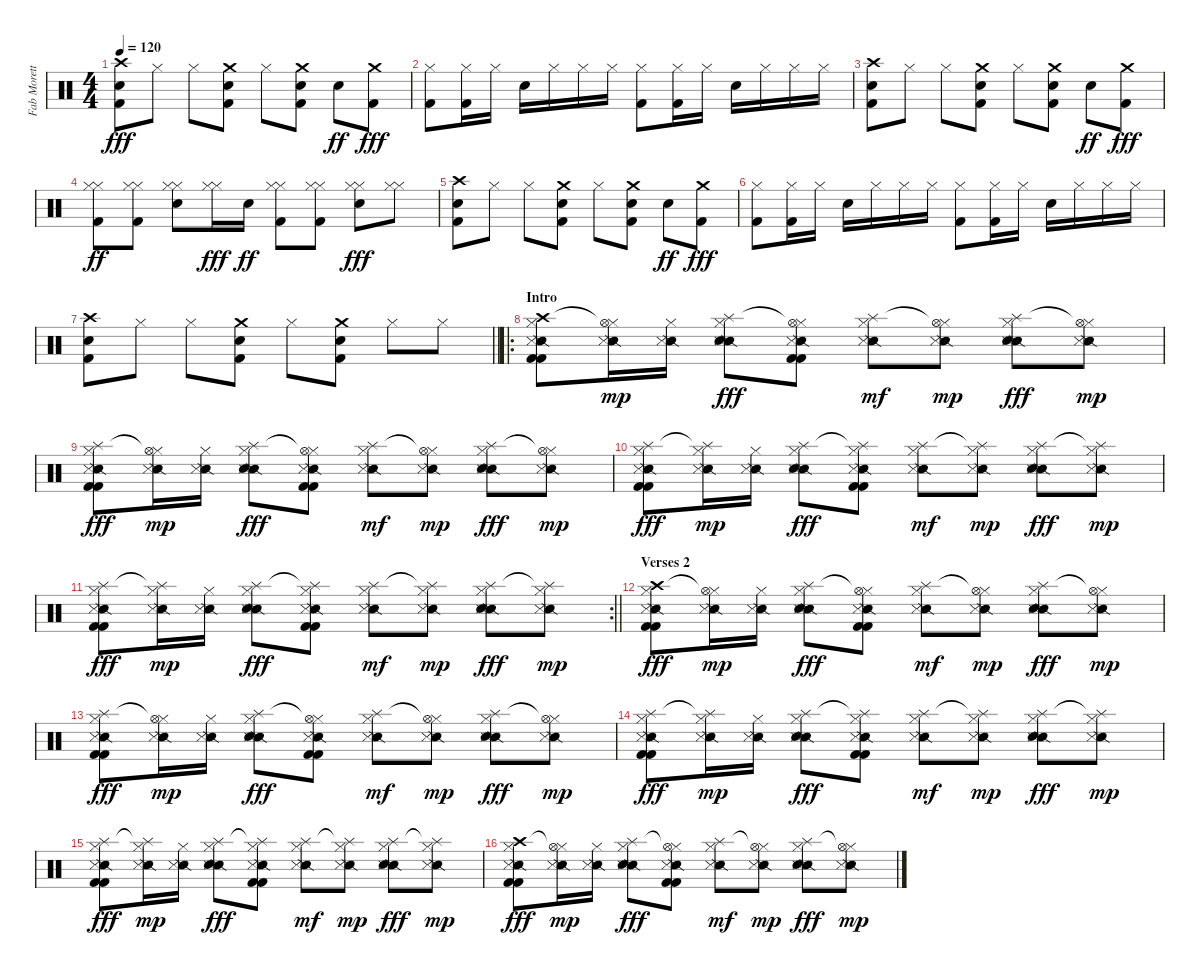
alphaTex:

\track ("Fab Moretti - Drums" "Fab Morett") {instrument percussion}
\staff {score}
\articulation defaults
\ts (4 4)
\tempo 120
\clef neutral
\ks c
("Crash high (hit)" "Electric Snare (hit)" "Kick (hit) 2").8{dy fff} "Hi-Hat (closed)".8 "Hi-Hat (closed)".8 ("Crash medium (hit)" "Electric Snare (hit)" "Kick (hit) 2").8 "Hi-Hat (closed)".8 ("Crash medium (hit)" "Electric Snare (hit)" "Kick (hit) 2").8 "Electric Snare (hit)".8{dy ff} ("Crash medium (hit)" "Kick (hit) 2").8{dy fff} |
("Hi-Hat (closed)" "Kick (hit) 2").8 ("Hi-Hat (closed)" "Kick (hit) 2").16 "Hi-Hat (closed)".16 "Electric Snare (hit)".16 "Hi-Hat (closed)".16 "Hi-Hat (closed)".16 "Hi-Hat (closed)".16 ("Hi-Hat (closed)" "Kick (hit) 2").8 ("Hi-Hat (closed)" "Kick (hit) 2").16 "Hi-Hat (closed)".16 "Electric Snare (hit)".16 "Hi-Hat (closed)".16 "Hi-Hat (closed)".16 "Hi-Hat (closed)".16 |
("Crash high (hit)" "Electric Snare (hit)" "Kick (hit) 2").8 "Hi-Hat (closed)".8 "Hi-Hat (closed)".8 ("Crash medium (hit)" "Electric Snare (hit)" "Kick (hit) 2").8 "Hi-Hat (closed)".8 ("Crash medium (hit)" "Electric Snare (hit)" "Kick (hit) 2").8 "Electric Snare (hit)".8{dy ff} ("Crash medium (hit)" "Kick (hit) 2").8{dy fff} |
("Hi-Hat (closed)" "Hi-Hat (closed)" "Kick (hit) 2").8{dy ff} ("Hi-Hat (closed)" "Hi-Hat (closed)" "Kick (hit) 2").8 ("Hi-Hat (closed)" "Hi-Hat (closed)" "Electric Snare (hit)").8 ("Hi-Hat (closed)" "Hi-Hat (closed)").16{dy fff} "Electric Snare (hit)".16{dy ff} ("Hi-Hat (closed)" "Hi-Hat (closed)" "Kick (hit) 2").8 ("Hi-Hat (closed)" "Hi-Hat (closed)" "Kick (hit) 2").8 ("Hi-Hat (closed)" "Hi-Hat (closed)" "Electric Snare (hit)").8{dy fff} ("Hi-Hat (closed)" "Hi-Hat (closed)").8 |
("Crash high (hit)" "Electric Snare (hit)" "Kick (hit) 2").8 "Hi-Hat (closed)".8 "Hi-Hat (closed)".8 ("Crash medium (hit)" "Electric Snare (hit)" "Kick (hit) 2").8 "Hi-Hat (closed)".8 ("Crash medium (hit)" "Electric Snare (hit)" "Kick (hit) 2").8 "Electric Snare (hit)".8{dy ff} ("Crash medium (hit)" "Kick (hit) 2").8{dy fff} |
("Hi-Hat (closed)" "Kick (hit) 2").8 ("Hi-Hat (closed)" "Kick (hit) 2").16 "Hi-Hat (closed)".16 "Electric Snare (hit)".16 "Hi-Hat (closed)".16 "Hi-Hat (closed)".16 "Hi-Hat (closed)".16 ("Hi-Hat (closed)" "Kick (hit) 2").8 ("Hi-Hat (closed)" "Kick (hit) 2").16 "Hi-Hat (closed)".16 "Electric Snare (hit)".16 "Hi-Hat (closed)".16 "Hi-Hat (closed)".16 "Hi-Hat (closed)".16 |
\barLineRight lightlight
("Crash high (hit)" "Electric Snare (hit)" "Kick (hit) 2").8 "Hi-Hat (closed)".8 "Hi-Hat (closed)".8 ("Crash medium (hit)" "Electric Snare (hit)" "Kick (hit) 2").8 "Hi-Hat (closed)".8 ("Crash medium (hit)" "Electric Snare (hit)" "Kick (hit) 2").8 "Hi-Hat (closed)".8 "Hi-Hat (closed)".8 |
\ro
\section ("" "Intro")
("Snare (side stick) 2" "Metronome (hit)" "Hi-Hat (closed)" "Crash high (hit)" "Kick (hit) 2" "Kick (hit) 2").8 ("Snare (side stick) 2" "Metronome (hit)" "Hi-Hat (closed)" "Hi-Hat (open)"{t}).16{dy mp} ("Snare (side stick) 2" "Metronome (hit)" "Hi-Hat (closed)").16 ("Snare (side stick) 2" "Metronome (hit)" "Hi-Hat (closed)" "Splash (hit)" "Electric Snare (hit)").8{dy fff} ("Snare (side stick) 2" "Metronome (hit)" "Hi-Hat (closed)" "Hi-Hat (open)"{t} "Kick (hit) 2" "Kick (hit) 2").8 ("Snare (side stick) 2" "Metronome (hit)" "Hi-Hat (closed)" "Splash (hit)").8{dy mf} ("Snare (side stick) 2" "Metronome (hit)" "Hi-Hat (closed)" "Hi-Hat (open)"{t}).8{dy mp} ("Snare (side stick) 2" "Metronome (hit)" "Hi-Hat (closed)" "Splash (hit)" "Electric Snare (hit)").8{dy fff} ("Snare (side stick) 2" "Metronome (hit)" "Hi-Hat (closed)" "Hi-Hat (open)"{t}).8{dy mp} |
("Snare (side stick) 2" "Metronome (hit)" "Hi-Hat (closed)" "Splash (hit)" "Kick (hit) 2" "Kick (hit) 2").8{dy fff} ("Snare (side stick) 2" "Metronome (hit)" "Hi-Hat (closed)" "Hi-Hat (open)"{t}).16{dy mp} ("Snare (side stick) 2" "Metronome (hit)" "Hi-Hat (closed)").16 ("Snare (side stick) 2" "Metronome (hit)" "Hi-Hat (closed)" "Splash (hit)" "Electric Snare (hit)").8{dy fff} ("Snare (side stick) 2" "Metronome (hit)" "Hi-Hat (closed)" "Hi-Hat (open)"{t} "Kick (hit) 2" "Kick (hit) 2").8 ("Snare (side stick) 2" "Metronome (hit)" "Hi-Hat (closed)" "Splash (hit)").8{dy mf} ("Snare (side stick) 2" "Metronome (hit)" "Hi-Hat (closed)" "Hi-Hat (open)"{t}).8{dy mp} ("Snare (side stick) 2" "Metronome (hit)" "Hi-Hat (closed)" "Splash (hit)" "Electric Snare (hit)").8{dy fff} ("Snare (side stick) 2" "Metronome (hit)" "Hi-Hat (closed)" "Hi-Hat (open)"{t}).8{dy mp} |
("Snare (side stick) 2" "Metronome (hit)" "Hi-Hat (closed)" "Splash (hit)" "Kick (hit) 2" "Kick (hit) 2").8{dy fff} ("Snare (side stick) 2" "Metronome (hit)" "Hi-Hat (closed)" "Splash (hit)"{t}).16{dy mp} ("Snare (side stick) 2" "Metronome (hit)" "Hi-Hat (closed)").16 ("Snare (side stick) 2" "Metronome (hit)" "Hi-Hat (closed)" "Splash (hit)" "Electric Snare (hit)").8{dy fff} ("Snare (side stick) 2" "Metronome (hit)" "Hi-Hat (closed)" "Splash (hit)"{t} "Kick (hit) 2" "Kick (hit) 2").8 ("Snare (side stick) 2" "Metronome (hit)" "Hi-Hat (closed)" "Splash (hit)").8{dy mf} ("Snare (side stick) 2" "Metronome (hit)" "Hi-Hat (closed)" "Splash (hit)"{t}).8{dy mp} ("Snare (side stick) 2" "Metronome (hit)" "Hi-Hat (closed)" "Splash (hit)" "Electric Snare (hit)").8{dy fff} ("Snare (side stick) 2" "Metronome (hit)" "Hi-Hat (closed)" "Splash (hit)"{t}).8{dy mp} |
\rc 2
\barLineRight lightlight
("Snare (side stick) 2" "Metronome (hit)" "Hi-Hat (closed)" "Splash (hit)" "Kick (hit) 2" "Kick (hit) 2").8{dy fff} ("Snare (side stick) 2" "Metronome (hit)" "Hi-Hat (closed)" "Splash (hit)"{t}).16{dy mp} ("Snare (side stick) 2" "Metronome (hit)" "Hi-Hat (closed)").16 ("Snare (side stick) 2" "Metronome (hit)" "Hi-Hat (closed)" "Splash (hit)" "Electric Snare (hit)").8{dy fff} ("Snare (side stick) 2" "Metronome (hit)" "Hi-Hat (closed)" "Splash (hit)"{t} "Kick (hit) 2" "Kick (hit) 2").8 ("Snare (side stick) 2" "Metronome (hit)" "Hi-Hat (closed)" "Splash (hit)").8{dy mf} ("Snare (side stick) 2" "Metronome (hit)" "Hi-Hat (closed)" "Splash (hit)"{t}).8{dy mp} ("Snare (side stick) 2" "Metronome (hit)" "Hi-Hat (closed)" "Splash (hit)" "Electric Snare (hit)").8{dy fff} ("Snare (side stick) 2" "Metronome (hit)" "Hi-Hat (closed)" "Splash (hit)"{t}).8{dy mp} |
\section ("" "Verses 2")
("Snare (side stick) 2" "Metronome (hit)" "Hi-Hat (closed)" "Crash high (hit)" "Kick (hit) 2" "Kick (hit) 2").8{dy fff} ("Snare (side stick) 2" "Metronome (hit)" "Hi-Hat (closed)" "Hi-Hat (open)"{t}).16{dy mp} ("Snare (side stick) 2" "Metronome (hit)" "Hi-Hat (closed)").16 ("Snare (side stick) 2" "Metronome (hit)" "Hi-Hat (closed)" "Splash (hit)" "Electric Snare (hit)").8{dy fff} ("Snare (side stick) 2" "Metronome (hit)" "Hi-Hat (closed)" "Hi-Hat (open)"{t} "Kick (hit) 2" "Kick (hit) 2").8 ("Snare (side stick) 2" "Metronome (hit)" "Hi-Hat (closed)" "Splash (hit)").8{dy mf} ("Snare (side stick) 2" "Metronome (hit)" "Hi-Hat (closed)" "Hi-Hat (open)"{t}).8{dy mp} ("Snare (side stick) 2" "Metronome (hit)" "Hi-Hat (closed)" "Splash (hit)" "Electric Snare (hit)").8{dy fff} ("Snare (side stick) 2" "Metronome (hit)" "Hi-Hat (closed)" "Hi-Hat (open)"{t}).8{dy mp} |
("Snare (side stick) 2" "Metronome (hit)" "Hi-Hat (closed)" "Splash (hit)" "Kick (hit) 2" "Kick (hit) 2").8{dy fff} ("Snare (side stick) 2" "Metronome (hit)" "Hi-Hat (closed)" "Hi-Hat (open)"{t}).16{dy mp} ("Snare (side stick) 2" "Metronome (hit)" "Hi-Hat (closed)").16 ("Snare (side stick) 2" "Metronome (hit)" "Hi-Hat (closed)" "Splash (hit)" "Electric Snare (hit)").8{dy fff} ("Snare (side stick) 2" "Metronome (hit)" "Hi-Hat (closed)" "Hi-Hat (open)"{t} "Kick (hit) 2" "Kick (hit) 2").8 ("Snare (side stick) 2" "Metronome (hit)" "Hi-Hat (closed)" "Splash (hit)").8{dy mf} ("Snare (side stick) 2" "Metronome (hit)" "Hi-Hat (closed)" "Hi-Hat (open)"{t}).8{dy mp} ("Snare (side stick) 2" "Metronome (hit)" "Hi-Hat (closed)" "Splash (hit)" "Electric Snare (hit)").8{dy fff} ("Snare (side stick) 2" "Metronome (hit)" "Hi-Hat (closed)" "Hi-Hat (open)"{t}).8{dy mp} |
("Snare (side stick) 2" "Metronome (hit)" "Hi-Hat (closed)" "Splash (hit)" "Kick (hit) 2" "Kick (hit) 2").8{dy fff} ("Snare (side stick) 2" "Metronome (hit)" "Hi-Hat (closed)" "Splash (hit)"{t}).16{dy mp} ("Snare (side stick) 2" "Metronome (hit)" "Hi-Hat (closed)").16 ("Snare (side stick) 2" "Metronome (hit)" "Hi-Hat (closed)" "Splash (hit)" "Electric Snare (hit)").8{dy fff} ("Snare (side stick) 2" "Metronome (hit)" "Hi-Hat (closed)" "Splash (hit)"{t} "Kick (hit) 2" "Kick (hit) 2").8 ("Snare (side stick) 2" "Metronome (hit)" "Hi-Hat (closed)" "Splash (hit)").8{dy mf} ("Snare (side stick) 2" "Metronome (hit)" "Hi-Hat (closed)" "Splash (hit)"{t}).8{dy mp} ("Snare (side stick) 2" "Metronome (hit)" "Hi-Hat (closed)" "Splash (hit)" "Electric Snare (hit)").8{dy fff} ("Snare (side stick) 2" "Metronome (hit)" "Hi-Hat (closed)" "Splash (hit)"{t}).8{dy mp} |
("Snare (side stick) 2" "Metronome (hit)" "Hi-Hat (closed)" "Splash (hit)" "Kick (hit) 2" "Kick (hit) 2").8{dy fff} ("Snare (side stick) 2" "Metronome (hit)" "Hi-Hat (closed)" "Splash (hit)"{t}).16{dy mp} ("Snare (side stick) 2" "Metronome (hit)" "Hi-Hat (closed)").16 ("Snare (side stick) 2" "Metronome (hit)" "Hi-Hat (closed)" "Splash (hit)" "Electric Snare (hit)").8{dy fff} ("Snare (side stick) 2" "Metronome (hit)" "Hi-Hat (closed)" "Splash (hit)"{t} "Kick (hit) 2" "Kick (hit) 2").8 ("Snare (side stick) 2" "Metronome (hit)" "Hi-Hat (closed)" "Splash (hit)").8{dy mf} ("Snare (side stick) 2" "Metronome (hit)" "Hi-Hat (closed)" "Splash (hit)"{t}).8{dy mp} ("Snare (side stick) 2" "Metronome (hit)" "Hi-Hat (closed)" "Splash (hit)" "Electric Snare (hit)").8{dy fff} ("Snare (side stick) 2" "Metronome (hit)" "Hi-Hat (closed)" "Splash (hit)"{t}).8{dy mp} |
("Snare (side stick) 2" "Metronome (hit)" "Hi-Hat (closed)" "Crash high (hit)" "Kick (hit) 2" "Kick (hit) 2").8{dy fff} ("Snare (side stick) 2" "Metronome (hit)" "Hi-Hat (closed)" "Hi-Hat (open)"{t}).16{dy mp} ("Snare (side stick) 2" "Metronome (hit)" "Hi-Hat (closed)").16 ("Snare (side stick) 2" "Metronome (hit)" "Hi-Hat (closed)" "Splash (hit)" "Electric Snare (hit)").8{dy fff} ("Snare (side stick) 2" "Metronome (hit)" "Hi-Hat (closed)" "Hi-Hat (open)"{t} "Kick (hit) 2" "Kick (hit) 2").8 ("Snare (side stick) 2" "Metronome (hit)" "Hi-Hat (closed)" "Splash (hit)").8{dy mf} ("Snare (side stick) 2" "Metronome (hit)" "Hi-Hat (closed)" "Hi-Hat (open)"{t}).8{dy mp} ("Snare (side stick) 2" "Metronome (hit)" "Hi-Hat (closed)" "Splash (hit)" "Electric Snare (hit)").8{dy fff} ("Snare (side stick) 2" "Metronome (hit)" "Hi-Hat (closed)" "Hi-Hat (open)"{t}).8{dy mp}
